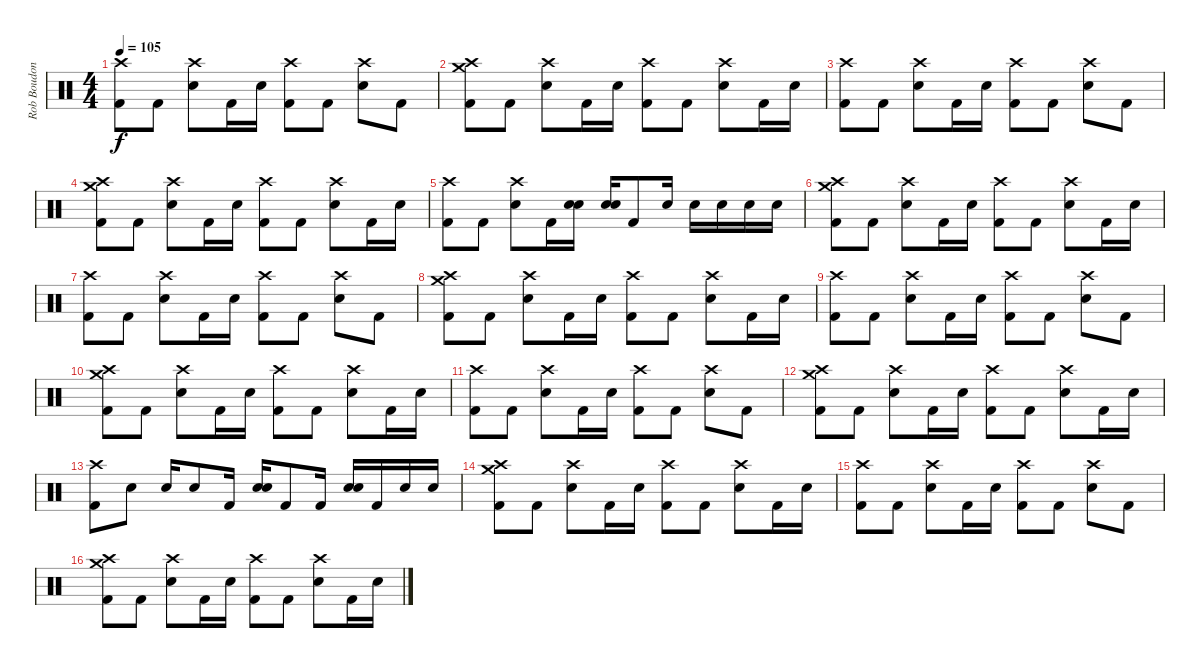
\track ("Rob Boudon [Drums]" "Rob Boudon") {instrument percussion}
\staff {score}
\articulation defaults
\ts (4 4)
\tempo 105
\clef neutral
\ks c
("Crash high (hit)" "Kick (hit) 2").8{dy f} "Kick (hit) 2".8 ("Crash high (hit)" "Electric Snare (hit)").8 "Kick (hit) 2".16 "Electric Snare (hit)".16 ("Crash high (hit)" "Kick (hit) 2").8 "Kick (hit) 2".8 ("Crash high (hit)" "Electric Snare (hit)").8 "Kick (hit) 2".8 |
("Crash medium (hit)" "Crash high (hit)" "Kick (hit) 2").8 "Kick (hit) 2".8 ("Crash high (hit)" "Electric Snare (hit)").8 "Kick (hit) 2".16 "Electric Snare (hit)".16 ("Crash high (hit)" "Kick (hit) 2").8 "Kick (hit) 2".8 ("Crash high (hit)" "Electric Snare (hit)").8 "Kick (hit) 2".16 "Electric Snare (hit)".16 |
("Crash high (hit)" "Kick (hit) 2").8 "Kick (hit) 2".8 ("Crash high (hit)" "Electric Snare (hit)").8 "Kick (hit) 2".16 "Electric Snare (hit)".16 ("Crash high (hit)" "Kick (hit) 2").8 "Kick (hit) 2".8 ("Crash high (hit)" "Electric Snare (hit)").8 "Kick (hit) 2".8 |
("Crash medium (hit)" "Crash high (hit)" "Kick (hit) 2").8 "Kick (hit) 2".8 ("Crash high (hit)" "Electric Snare (hit)").8 "Kick (hit) 2".16 "Electric Snare (hit)".16 ("Crash high (hit)" "Kick (hit) 2").8 "Kick (hit) 2".8 ("Crash high (hit)" "Electric Snare (hit)").8 "Kick (hit) 2".16 "Electric Snare (hit)".16 |
("Crash high (hit)" "Kick (hit) 2").8 "Kick (hit) 2".8 ("Crash high (hit)" "Electric Snare (hit)").8 "Kick (hit) 2".16 ("Electric Snare (hit)" "Electric Snare (hit)").16{bd 240} ("Electric Snare (hit)" "Electric Snare (hit)").16{bd 240} "Kick (hit) 2".8 "Electric Snare (hit)".16 "Electric Snare (hit)".16 "Electric Snare (hit)".16 "Electric Snare (hit)".16 "Electric Snare (hit)".16 |
("Crash medium (hit)" "Crash high (hit)" "Kick (hit) 2").8 "Kick (hit) 2".8 ("Crash high (hit)" "Electric Snare (hit)").8 "Kick (hit) 2".16 "Electric Snare (hit)".16 ("Crash high (hit)" "Kick (hit) 2").8 "Kick (hit) 2".8 ("Crash high (hit)" "Electric Snare (hit)").8 "Kick (hit) 2".16 "Electric Snare (hit)".16 |
("Crash high (hit)" "Kick (hit) 2").8 "Kick (hit) 2".8 ("Crash high (hit)" "Electric Snare (hit)").8 "Kick (hit) 2".16 "Electric Snare (hit)".16 ("Crash high (hit)" "Kick (hit) 2").8 "Kick (hit) 2".8 ("Crash high (hit)" "Electric Snare (hit)").8 "Kick (hit) 2".8 |
("Crash medium (hit)" "Crash high (hit)" "Kick (hit) 2").8 "Kick (hit) 2".8 ("Crash high (hit)" "Electric Snare (hit)").8 "Kick (hit) 2".16 "Electric Snare (hit)".16 ("Crash high (hit)" "Kick (hit) 2").8 "Kick (hit) 2".8 ("Crash high (hit)" "Electric Snare (hit)").8 "Kick (hit) 2".16 "Electric Snare (hit)".16 |
("Crash high (hit)" "Kick (hit) 2").8 "Kick (hit) 2".8 ("Crash high (hit)" "Electric Snare (hit)").8 "Kick (hit) 2".16 "Electric Snare (hit)".16 ("Crash high (hit)" "Kick (hit) 2").8 "Kick (hit) 2".8 ("Crash high (hit)" "Electric Snare (hit)").8 "Kick (hit) 2".8 |
("Crash medium (hit)" "Crash high (hit)" "Kick (hit) 2").8 "Kick (hit) 2".8 ("Crash high (hit)" "Electric Snare (hit)").8 "Kick (hit) 2".16 "Electric Snare (hit)".16 ("Crash high (hit)" "Kick (hit) 2").8 "Kick (hit) 2".8 ("Crash high (hit)" "Electric Snare (hit)").8 "Kick (hit) 2".16 "Electric Snare (hit)".16 |
("Crash high (hit)" "Kick (hit) 2").8 "Kick (hit) 2".8 ("Crash high (hit)" "Electric Snare (hit)").8 "Kick (hit) 2".16 "Electric Snare (hit)".16 ("Crash high (hit)" "Kick (hit) 2").8 "Kick (hit) 2".8 ("Crash high (hit)" "Electric Snare (hit)").8 "Kick (hit) 2".8 |
("Crash medium (hit)" "Crash high (hit)" "Kick (hit) 2").8 "Kick (hit) 2".8 ("Crash high (hit)" "Electric Snare (hit)").8 "Kick (hit) 2".16 "Electric Snare (hit)".16 ("Crash high (hit)" "Kick (hit) 2").8 "Kick (hit) 2".8 ("Crash high (hit)" "Electric Snare (hit)").8 "Kick (hit) 2".16 "Electric Snare (hit)".16 |
("Crash high (hit)" "Kick (hit) 2").8 "Electric Snare (hit)".8 "Electric Snare (hit)".16 "Electric Snare (hit)".8 "Kick (hit) 2".16 ("Electric Snare (hit)" "Electric Snare (hit)").16{bd 240} "Kick (hit) 2".8 "Kick (hit) 2".16 ("Electric Snare (hit)" "Electric Snare (hit)").16{bd 240} "Kick (hit) 2".16 "Electric Snare (hit)".16 "Electric Snare (hit)".16 |
("Crash medium (hit)" "Crash high (hit)" "Kick (hit) 2").8 "Kick (hit) 2".8 ("Crash high (hit)" "Electric Snare (hit)").8 "Kick (hit) 2".16 "Electric Snare (hit)".16 ("Crash high (hit)" "Kick (hit) 2").8 "Kick (hit) 2".8 ("Crash high (hit)" "Electric Snare (hit)").8 "Kick (hit) 2".16 "Electric Snare (hit)".16 |
("Crash high (hit)" "Kick (hit) 2").8 "Kick (hit) 2".8 ("Crash high (hit)" "Electric Snare (hit)").8 "Kick (hit) 2".16 "Electric Snare (hit)".16 ("Crash high (hit)" "Kick (hit) 2").8 "Kick (hit) 2".8 ("Crash high (hit)" "Electric Snare (hit)").8 "Kick (hit) 2".8 |
("Crash medium (hit)" "Crash high (hit)" "Kick (hit) 2").8 "Kick (hit) 2".8 ("Crash high (hit)" "Electric Snare (hit)").8 "Kick (hit) 2".16 "Electric Snare (hit)".16 ("Crash high (hit)" "Kick (hit) 2").8 "Kick (hit) 2".8 ("Crash high (hit)" "Electric Snare (hit)").8 "Kick (hit) 2".16 "Electric Snare (hit)".16
